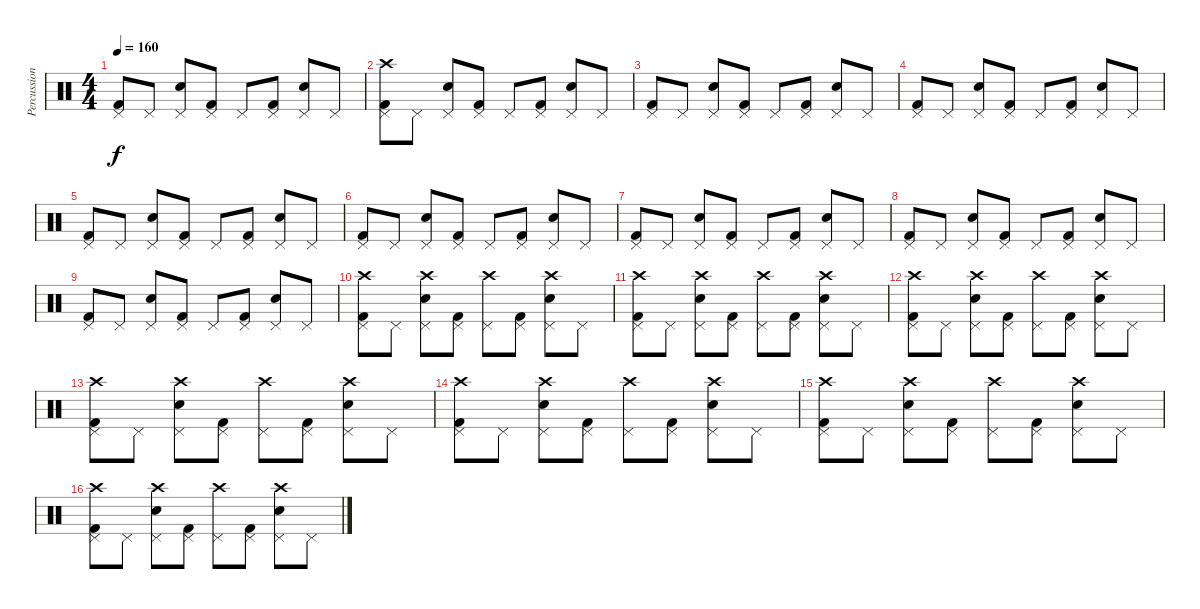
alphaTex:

\track ("Percussion" "Percussion") {instrument percussion}
\staff {score}
\articulation defaults
\ts (4 4)
\tempo 160
\clef neutral
\ks c
("Pedal Hi-Hat (hit)" "Kick (hit) 2").8{dy f} "Pedal Hi-Hat (hit)".8 ("Pedal Hi-Hat (hit)" "Electric Snare (hit)").8 ("Pedal Hi-Hat (hit)" "Kick (hit) 2").8 "Pedal Hi-Hat (hit)".8 ("Pedal Hi-Hat (hit)" "Kick (hit) 2").8 ("Pedal Hi-Hat (hit)" "Electric Snare (hit)").8 "Pedal Hi-Hat (hit)".8 |
("Pedal Hi-Hat (hit)" "Kick (hit) 2" "Crash high (hit)").8 "Pedal Hi-Hat (hit)".8 ("Pedal Hi-Hat (hit)" "Electric Snare (hit)").8 ("Pedal Hi-Hat (hit)" "Kick (hit) 2").8 "Pedal Hi-Hat (hit)".8 ("Pedal Hi-Hat (hit)" "Kick (hit) 2").8 ("Pedal Hi-Hat (hit)" "Electric Snare (hit)").8 "Pedal Hi-Hat (hit)".8 |
("Pedal Hi-Hat (hit)" "Kick (hit) 2").8 "Pedal Hi-Hat (hit)".8 ("Pedal Hi-Hat (hit)" "Electric Snare (hit)").8 ("Pedal Hi-Hat (hit)" "Kick (hit) 2").8 "Pedal Hi-Hat (hit)".8 ("Pedal Hi-Hat (hit)" "Kick (hit) 2").8 ("Pedal Hi-Hat (hit)" "Electric Snare (hit)").8 "Pedal Hi-Hat (hit)".8 |
("Pedal Hi-Hat (hit)" "Kick (hit) 2").8 "Pedal Hi-Hat (hit)".8 ("Pedal Hi-Hat (hit)" "Electric Snare (hit)").8 ("Pedal Hi-Hat (hit)" "Kick (hit) 2").8 "Pedal Hi-Hat (hit)".8 ("Pedal Hi-Hat (hit)" "Kick (hit) 2").8 ("Pedal Hi-Hat (hit)" "Electric Snare (hit)").8 "Pedal Hi-Hat (hit)".8 |
("Pedal Hi-Hat (hit)" "Kick (hit) 2").8 "Pedal Hi-Hat (hit)".8 ("Pedal Hi-Hat (hit)" "Electric Snare (hit)").8 ("Pedal Hi-Hat (hit)" "Kick (hit) 2").8 "Pedal Hi-Hat (hit)".8 ("Pedal Hi-Hat (hit)" "Kick (hit) 2").8 ("Pedal Hi-Hat (hit)" "Electric Snare (hit)").8 "Pedal Hi-Hat (hit)".8 |
("Pedal Hi-Hat (hit)" "Kick (hit) 2").8 "Pedal Hi-Hat (hit)".8 ("Pedal Hi-Hat (hit)" "Electric Snare (hit)").8 ("Pedal Hi-Hat (hit)" "Kick (hit) 2").8 "Pedal Hi-Hat (hit)".8 ("Pedal Hi-Hat (hit)" "Kick (hit) 2").8 ("Pedal Hi-Hat (hit)" "Electric Snare (hit)").8 "Pedal Hi-Hat (hit)".8 |
("Pedal Hi-Hat (hit)" "Kick (hit) 2").8 "Pedal Hi-Hat (hit)".8 ("Pedal Hi-Hat (hit)" "Electric Snare (hit)").8 ("Pedal Hi-Hat (hit)" "Kick (hit) 2").8 "Pedal Hi-Hat (hit)".8 ("Pedal Hi-Hat (hit)" "Kick (hit) 2").8 ("Pedal Hi-Hat (hit)" "Electric Snare (hit)").8 "Pedal Hi-Hat (hit)".8 |
("Pedal Hi-Hat (hit)" "Kick (hit) 2").8 "Pedal Hi-Hat (hit)".8 ("Pedal Hi-Hat (hit)" "Electric Snare (hit)").8 ("Pedal Hi-Hat (hit)" "Kick (hit) 2").8 "Pedal Hi-Hat (hit)".8 ("Pedal Hi-Hat (hit)" "Kick (hit) 2").8 ("Pedal Hi-Hat (hit)" "Electric Snare (hit)").8 "Pedal Hi-Hat (hit)".8 |
("Pedal Hi-Hat (hit)" "Kick (hit) 2").8 "Pedal Hi-Hat (hit)".8 ("Pedal Hi-Hat (hit)" "Electric Snare (hit)").8 ("Pedal Hi-Hat (hit)" "Kick (hit) 2").8 "Pedal Hi-Hat (hit)".8 ("Pedal Hi-Hat (hit)" "Kick (hit) 2").8 ("Pedal Hi-Hat (hit)" "Electric Snare (hit)").8 "Pedal Hi-Hat (hit)".8 |
("Pedal Hi-Hat (hit)" "Kick (hit) 2" "Crash high (hit)").8 "Pedal Hi-Hat (hit)".8 ("Pedal Hi-Hat (hit)" "Electric Snare (hit)" "Crash high (hit)").8 ("Pedal Hi-Hat (hit)" "Kick (hit) 2").8 ("Pedal Hi-Hat (hit)" "Crash high (hit)").8 ("Pedal Hi-Hat (hit)" "Kick (hit) 2").8 ("Pedal Hi-Hat (hit)" "Electric Snare (hit)" "Crash high (hit)").8 "Pedal Hi-Hat (hit)".8 |
("Pedal Hi-Hat (hit)" "Kick (hit) 2" "Crash high (hit)").8 "Pedal Hi-Hat (hit)".8 ("Pedal Hi-Hat (hit)" "Electric Snare (hit)" "Crash high (hit)").8 ("Pedal Hi-Hat (hit)" "Kick (hit) 2").8 ("Pedal Hi-Hat (hit)" "Crash high (hit)").8 ("Pedal Hi-Hat (hit)" "Kick (hit) 2").8 ("Pedal Hi-Hat (hit)" "Electric Snare (hit)" "Crash high (hit)").8 "Pedal Hi-Hat (hit)".8 |
("Pedal Hi-Hat (hit)" "Kick (hit) 2" "Crash high (hit)").8 "Pedal Hi-Hat (hit)".8 ("Pedal Hi-Hat (hit)" "Electric Snare (hit)" "Crash high (hit)").8 ("Pedal Hi-Hat (hit)" "Kick (hit) 2").8 ("Pedal Hi-Hat (hit)" "Crash high (hit)").8 ("Pedal Hi-Hat (hit)" "Kick (hit) 2").8 ("Pedal Hi-Hat (hit)" "Electric Snare (hit)" "Crash high (hit)").8 "Pedal Hi-Hat (hit)".8 |
("Pedal Hi-Hat (hit)" "Kick (hit) 2" "Crash high (hit)").8 "Pedal Hi-Hat (hit)".8 ("Pedal Hi-Hat (hit)" "Electric Snare (hit)" "Crash high (hit)").8 ("Pedal Hi-Hat (hit)" "Kick (hit) 2").8 ("Pedal Hi-Hat (hit)" "Crash high (hit)").8 ("Pedal Hi-Hat (hit)" "Kick (hit) 2").8 ("Pedal Hi-Hat (hit)" "Electric Snare (hit)" "Crash high (hit)").8 "Pedal Hi-Hat (hit)".8 |
("Pedal Hi-Hat (hit)" "Kick (hit) 2" "Crash high (hit)").8 "Pedal Hi-Hat (hit)".8 ("Pedal Hi-Hat (hit)" "Electric Snare (hit)" "Crash high (hit)").8 ("Pedal Hi-Hat (hit)" "Kick (hit) 2").8 ("Pedal Hi-Hat (hit)" "Crash high (hit)").8 ("Pedal Hi-Hat (hit)" "Kick (hit) 2").8 ("Pedal Hi-Hat (hit)" "Electric Snare (hit)" "Crash high (hit)").8 "Pedal Hi-Hat (hit)".8 |
("Pedal Hi-Hat (hit)" "Kick (hit) 2" "Crash high (hit)").8 "Pedal Hi-Hat (hit)".8 ("Pedal Hi-Hat (hit)" "Electric Snare (hit)" "Crash high (hit)").8 ("Pedal Hi-Hat (hit)" "Kick (hit) 2").8 ("Pedal Hi-Hat (hit)" "Crash high (hit)").8 ("Pedal Hi-Hat (hit)" "Kick (hit) 2").8 ("Pedal Hi-Hat (hit)" "Electric Snare (hit)" "Crash high (hit)").8 "Pedal Hi-Hat (hit)".8 |
("Pedal Hi-Hat (hit)" "Kick (hit) 2" "Crash high (hit)").8 "Pedal Hi-Hat (hit)".8 ("Pedal Hi-Hat (hit)" "Electric Snare (hit)" "Crash high (hit)").8 ("Pedal Hi-Hat (hit)" "Kick (hit) 2").8 ("Pedal Hi-Hat (hit)" "Crash high (hit)").8 ("Pedal Hi-Hat (hit)" "Kick (hit) 2").8 ("Pedal Hi-Hat (hit)" "Electric Snare (hit)" "Crash high (hit)").8 "Pedal Hi-Hat (hit)".8
